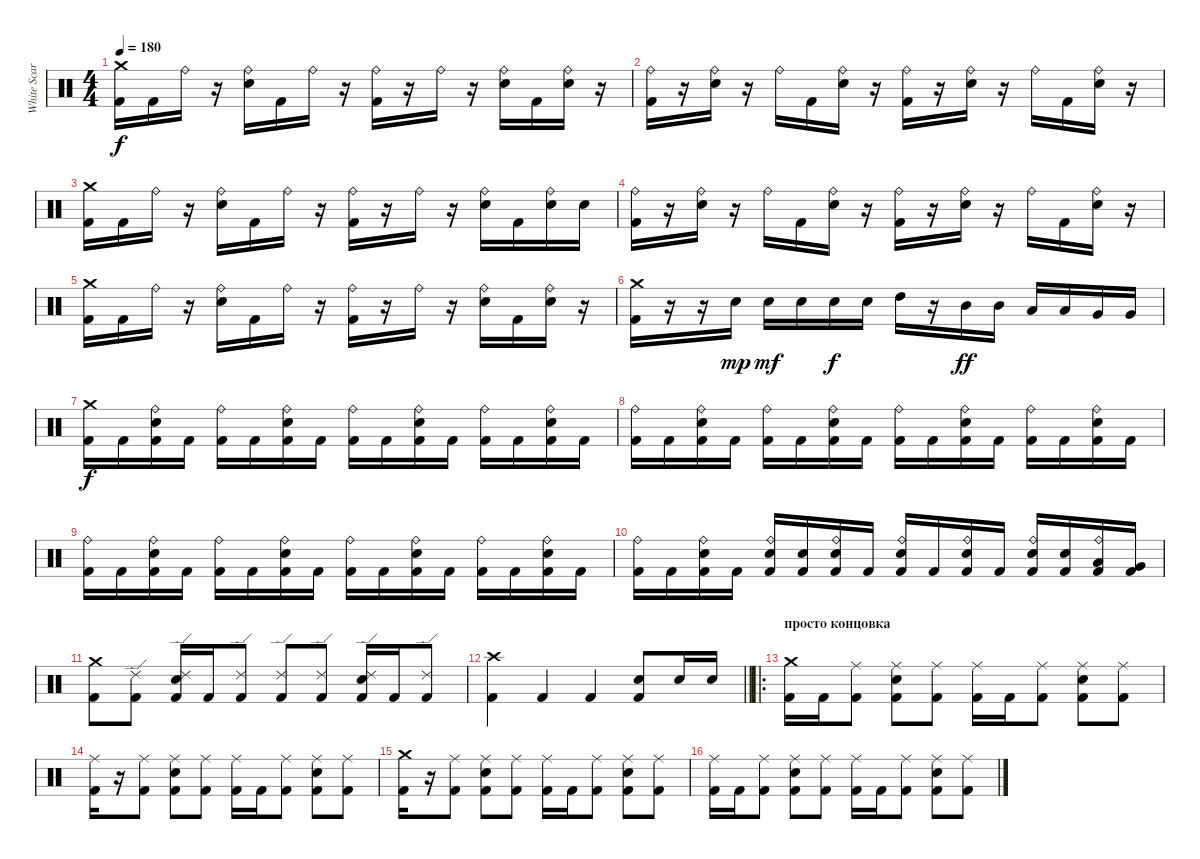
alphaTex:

\track ("White Scar" "White Scar") {instrument percussion}
\staff {score}
\articulation defaults
\ts (4 4)
\tempo 180
\clef neutral
\ks c
("Crash medium (hit)" "Kick (hit) 2").16{dy f} "Kick (hit) 2".16 "Ride (bell)".16 r.16 ("Ride (bell)" "Snare (hit) 2").16 "Kick (hit) 2".16 "Ride (bell)".16 r.16 ("Ride (bell)" "Kick (hit) 2").16 r.16 "Ride (bell)".16 r.16 ("Ride (bell)" "Snare (hit) 2").16 "Kick (hit) 2".16 ("Ride (bell)" "Snare (hit) 2").16 r.16 |
("Ride (bell)" "Kick (hit) 2").16 r.16 ("Ride (bell)" "Snare (hit) 2").16 r.16 "Ride (bell)".16 "Kick (hit) 2".16 ("Ride (bell)" "Snare (hit) 2").16 r.16 ("Ride (bell)" "Kick (hit) 2").16 r.16 ("Ride (bell)" "Snare (hit) 2").16 r.16 "Ride (bell)".16 "Kick (hit) 2".16 ("Ride (bell)" "Snare (hit) 2").16 r.16 |
("Crash medium (hit)" "Kick (hit) 2").16 "Kick (hit) 2".16 "Ride (bell)".16 r.16 ("Ride (bell)" "Snare (hit) 2").16 "Kick (hit) 2".16 "Ride (bell)".16 r.16 ("Ride (bell)" "Kick (hit) 2").16 r.16 "Ride (bell)".16 r.16 ("Ride (bell)" "Snare (hit) 2").16 "Kick (hit) 2".16 ("Ride (bell)" "Snare (hit) 2").16 "Snare (hit) 2".16 |
("Ride (bell)" "Kick (hit) 2").16 r.16 ("Ride (bell)" "Snare (hit) 2").16 r.16 "Ride (bell)".16 "Kick (hit) 2".16 ("Ride (bell)" "Snare (hit) 2").16 r.16 ("Ride (bell)" "Kick (hit) 2").16 r.16 ("Ride (bell)" "Snare (hit) 2").16 r.16 "Ride (bell)".16 "Kick (hit) 2".16 ("Ride (bell)" "Snare (hit) 2").16 r.16 |
("Crash medium (hit)" "Kick (hit) 2").16 "Kick (hit) 2".16 "Ride (bell)".16 r.16 ("Ride (bell)" "Snare (hit) 2").16 "Kick (hit) 2".16 "Ride (bell)".16 r.16 ("Ride (bell)" "Kick (hit) 2").16 r.16 "Ride (bell)".16 r.16 ("Ride (bell)" "Snare (hit) 2").16 "Kick (hit) 2".16 ("Ride (bell)" "Snare (hit) 2").16 r.16 |
("Crash medium (hit)" "Kick (hit) 2").16 r.16 r.16 "Snare (hit) 2".16{dy mp} "Snare (hit) 2".16{dy mf} "Snare (hit) 2".16 "Snare (hit) 2".16{dy f} "Snare (hit) 2".16 "High Tom (hit)".16 r.16 "Mid Tom (hit)".16{dy ff} "Mid Tom (hit)".16 "Low Tom (hit)".16 "Low Tom (hit)".16 "Very Low Tom (hit)".16 "Very Low Tom (hit)".16 |
("Crash medium (hit)" "Kick (hit) 2").16{dy f} "Kick (hit) 2".16 ("Ride (bell)" "Snare (hit) 2" "Kick (hit) 2").16 "Kick (hit) 2".16 ("Ride (bell)" "Kick (hit) 2").16 "Kick (hit) 2".16 ("Ride (bell)" "Snare (hit) 2" "Kick (hit) 2").16 "Kick (hit) 2".16 ("Ride (bell)" "Kick (hit) 2").16 "Kick (hit) 2".16 ("Ride (bell)" "Snare (hit) 2" "Kick (hit) 2").16 "Kick (hit) 2".16 ("Ride (bell)" "Kick (hit) 2").16 "Kick (hit) 2".16 ("Ride (bell)" "Snare (hit) 2" "Kick (hit) 2").16 "Kick (hit) 2".16 |
("Ride (bell)" "Kick (hit) 2").16 "Kick (hit) 2".16 ("Ride (bell)" "Snare (hit) 2" "Kick (hit) 2").16 "Kick (hit) 2".16 ("Ride (bell)" "Kick (hit) 2").16 "Kick (hit) 2".16 ("Ride (bell)" "Snare (hit) 2" "Kick (hit) 2").16 "Kick (hit) 2".16 ("Ride (bell)" "Kick (hit) 2").16 "Kick (hit) 2".16 ("Ride (bell)" "Snare (hit) 2" "Kick (hit) 2").16 "Kick (hit) 2".16 ("Ride (bell)" "Kick (hit) 2").16 "Kick (hit) 2".16 ("Ride (bell)" "Snare (hit) 2" "Kick (hit) 2").16 "Kick (hit) 2".16 |
("Ride (bell)" "Kick (hit) 2").16 "Kick (hit) 2".16 ("Ride (bell)" "Snare (hit) 2" "Kick (hit) 2").16 "Kick (hit) 2".16 ("Ride (bell)" "Kick (hit) 2").16 "Kick (hit) 2".16 ("Ride (bell)" "Snare (hit) 2" "Kick (hit) 2").16 "Kick (hit) 2".16 ("Ride (bell)" "Kick (hit) 2").16 "Kick (hit) 2".16 ("Ride (bell)" "Snare (hit) 2" "Kick (hit) 2").16 "Kick (hit) 2".16 ("Ride (bell)" "Kick (hit) 2").16 "Kick (hit) 2".16 ("Ride (bell)" "Snare (hit) 2" "Kick (hit) 2").16 "Kick (hit) 2".16 |
("Ride (bell)" "Kick (hit) 2").16 "Kick (hit) 2".16 ("Ride (bell)" "Snare (hit) 2" "Kick (hit) 2").16 "Kick (hit) 2".16 ("Ride (bell)" "Snare (hit) 2" "Kick (hit) 2").16 ("Snare (hit) 2" "Kick (hit) 2").16 ("Ride (bell)" "Snare (hit) 2" "Kick (hit) 2").16 "Kick (hit) 2".16 ("Ride (bell)" "Snare (hit) 2" "Kick (hit) 2").16 "Kick (hit) 2".16 ("Ride (bell)" "Snare (hit) 2" "Kick (hit) 2").16 "Kick (hit) 2".16 ("Ride (bell)" "Snare (hit) 2" "Kick (hit) 2").16 ("Snare (hit) 2" "Kick (hit) 2").16 ("Ride (bell)" "Low Tom (hit)" "Kick (hit) 2").16 ("Very Low Tom (hit)" "Kick (hit) 2").16 |
("Crash medium (hit)" "Kick (hit) 2").8 ("Ride (edge) 2" "Kick (hit) 2").8 ("Snare (hit) 2" "Ride (edge) 2" "Kick (hit) 2").16 "Kick (hit) 2".16 ("Ride (edge) 2" "Kick (hit) 2").8 ("Ride (edge) 2" "Kick (hit) 2").8 ("Ride (edge) 2" "Kick (hit) 2").8 ("Snare (hit) 2" "Ride (edge) 2" "Kick (hit) 2").16 "Kick (hit) 2".16 ("Ride (edge) 2" "Kick (hit) 2").8 |
\barLineRight lightlight
("Crash high (hit)" "Kick (hit) 2").4 "Kick (hit) 2".4 "Kick (hit) 2".4 ("Snare (hit) 2" "Kick (hit) 2").8 "Snare (hit) 2".16 "Snare (hit) 2".16 |
\ro
\section ("" "просто концовка")
("Crash medium (hit)" "Kick (hit) 2").16 "Kick (hit) 2".16 ("Ride (middle)" "Kick (hit) 2").8 ("Snare (hit) 2" "Ride (middle)" "Kick (hit) 2").8 ("Ride (middle)" "Kick (hit) 2").8 ("Ride (middle)" "Kick (hit) 2").16 "Kick (hit) 2".16 ("Ride (middle)" "Kick (hit) 2").8 ("Snare (hit) 2" "Ride (middle)" "Kick (hit) 2").8 ("Ride (middle)" "Kick (hit) 2").8 |
("Ride (middle)" "Kick (hit) 2").16 r.16 ("Ride (middle)" "Kick (hit) 2").8 ("Snare (hit) 2" "Ride (middle)" "Kick (hit) 2").8 ("Ride (middle)" "Kick (hit) 2").8 ("Ride (middle)" "Kick (hit) 2").16 "Kick (hit) 2".16 ("Ride (middle)" "Kick (hit) 2").8 ("Snare (hit) 2" "Ride (middle)" "Kick (hit) 2").8 ("Ride (middle)" "Kick (hit) 2").8 |
("Crash medium (hit)" "Kick (hit) 2").16 r.16 ("Ride (middle)" "Kick (hit) 2").8 ("Snare (hit) 2" "Ride (middle)" "Kick (hit) 2").8 ("Ride (middle)" "Kick (hit) 2").8 ("Ride (middle)" "Kick (hit) 2").16 "Kick (hit) 2".16 ("Ride (middle)" "Kick (hit) 2").8 ("Snare (hit) 2" "Ride (middle)" "Kick (hit) 2").8 ("Ride (middle)" "Kick (hit) 2").8 |
("Ride (middle)" "Kick (hit) 2").16 "Kick (hit) 2".16 ("Ride (middle)" "Kick (hit) 2").8 ("Snare (hit) 2" "Ride (middle)" "Kick (hit) 2").8 ("Ride (middle)" "Kick (hit) 2").8 ("Ride (middle)" "Kick (hit) 2").16 "Kick (hit) 2".16 ("Ride (middle)" "Kick (hit) 2").8 ("Snare (hit) 2" "Ride (middle)" "Kick (hit) 2").8 ("Ride (middle)" "Kick (hit) 2").8
